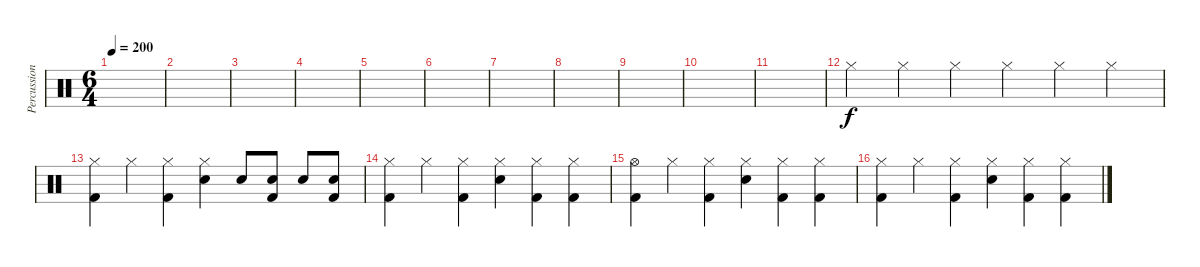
\track ("Percussion" "Percussion") {instrument percussion}
\staff {score}
\articulation defaults
\ts (6 4)
\tempo 200
\clef neutral
\ks c
|
|
|
|
|
|
|
|
|
|
|
"Hi-Hat (closed)".4 "Hi-Hat (closed)".4 "Hi-Hat (closed)".4 "Hi-Hat (closed)".4 "Hi-Hat (closed)".4 "Hi-Hat (closed)".4 |
("Hi-Hat (closed)" "Kick (hit) 2").4 "Hi-Hat (closed)".4 ("Hi-Hat (closed)" "Kick (hit) 2").4 ("Hi-Hat (closed)" "Electric Snare (hit)").4 "Electric Snare (hit)".8 ("Electric Snare (hit)" "Kick (hit) 2").8 "Electric Snare (hit)".8 ("Electric Snare (hit)" "Kick (hit) 2").8 |
("Hi-Hat (closed)" "Kick (hit) 2").4 "Hi-Hat (closed)".4 ("Hi-Hat (closed)" "Kick (hit) 2").4 ("Hi-Hat (closed)" "Electric Snare (hit)").4 ("Hi-Hat (closed)" "Kick (hit) 2").4 ("Hi-Hat (closed)" "Kick (hit) 2").4 |
("Hi-Hat (open)" "Kick (hit) 2").4 "Hi-Hat (closed)".4 ("Hi-Hat (closed)" "Kick (hit) 2").4 ("Hi-Hat (closed)" "Electric Snare (hit)").4 ("Hi-Hat (closed)" "Kick (hit) 2").4 ("Hi-Hat (closed)" "Kick (hit) 2").4 |
("Hi-Hat (closed)" "Kick (hit) 2").4 "Hi-Hat (closed)".4 ("Hi-Hat (closed)" "Kick (hit) 2").4 ("Hi-Hat (closed)" "Electric Snare (hit)").4 ("Hi-Hat (closed)" "Kick (hit) 2").4 ("Hi-Hat (closed)" "Kick (hit) 2").4
